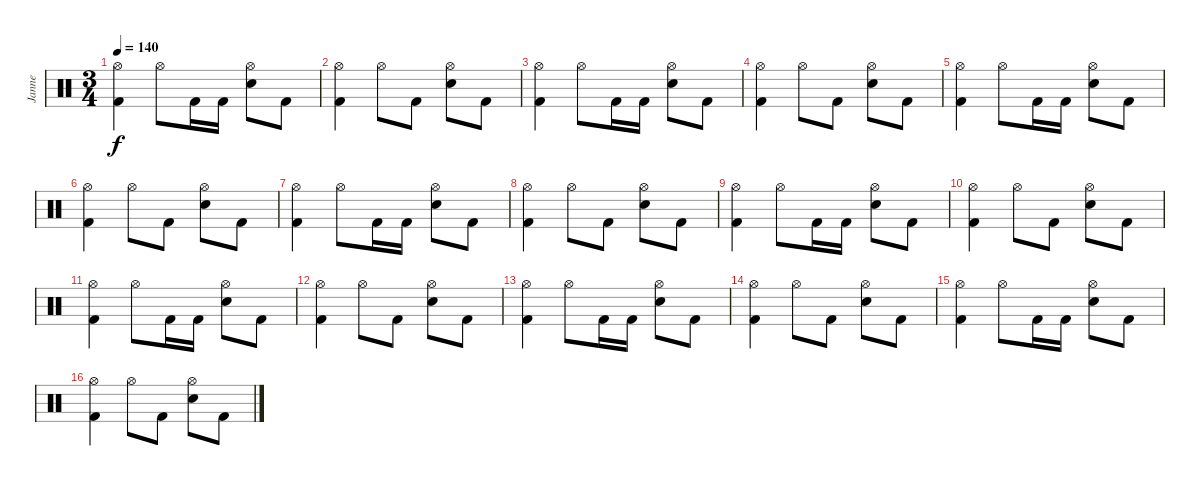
\track ("Janne" "Janne") {instrument percussion}
\staff {score}
\articulation defaults
\ts (3 4)
\tempo 140
\clef neutral
\ks c
("Hi-Hat (open)" "Kick (hit) 2").4{dy f} "Hi-Hat (open)".8 "Kick (hit) 2".16 "Kick (hit) 2".16 ("Hi-Hat (open)" "Electric Snare (hit)").8 "Kick (hit) 2".8 |
("Hi-Hat (open)" "Kick (hit) 2").4 "Hi-Hat (open)".8 "Kick (hit) 2".8 ("Hi-Hat (open)" "Electric Snare (hit)").8 "Kick (hit) 2".8 |
("Hi-Hat (open)" "Kick (hit) 2").4 "Hi-Hat (open)".8 "Kick (hit) 2".16 "Kick (hit) 2".16 ("Hi-Hat (open)" "Electric Snare (hit)").8 "Kick (hit) 2".8 |
("Hi-Hat (open)" "Kick (hit) 2").4 "Hi-Hat (open)".8 "Kick (hit) 2".8 ("Hi-Hat (open)" "Electric Snare (hit)").8 "Kick (hit) 2".8 |
("Hi-Hat (open)" "Kick (hit) 2").4 "Hi-Hat (open)".8 "Kick (hit) 2".16 "Kick (hit) 2".16 ("Hi-Hat (open)" "Electric Snare (hit)").8 "Kick (hit) 2".8 |
("Hi-Hat (open)" "Kick (hit) 2").4 "Hi-Hat (open)".8 "Kick (hit) 2".8 ("Hi-Hat (open)" "Electric Snare (hit)").8 "Kick (hit) 2".8 |
("Hi-Hat (open)" "Kick (hit) 2").4 "Hi-Hat (open)".8 "Kick (hit) 2".16 "Kick (hit) 2".16 ("Hi-Hat (open)" "Electric Snare (hit)").8 "Kick (hit) 2".8 |
("Hi-Hat (open)" "Kick (hit) 2").4 "Hi-Hat (open)".8 "Kick (hit) 2".8 ("Hi-Hat (open)" "Electric Snare (hit)").8 "Kick (hit) 2".8 |
("Hi-Hat (open)" "Kick (hit) 2").4 "Hi-Hat (open)".8 "Kick (hit) 2".16 "Kick (hit) 2".16 ("Hi-Hat (open)" "Electric Snare (hit)").8 "Kick (hit) 2".8 |
("Hi-Hat (open)" "Kick (hit) 2").4 "Hi-Hat (open)".8 "Kick (hit) 2".8 ("Hi-Hat (open)" "Electric Snare (hit)").8 "Kick (hit) 2".8 |
("Hi-Hat (open)" "Kick (hit) 2").4 "Hi-Hat (open)".8 "Kick (hit) 2".16 "Kick (hit) 2".16 ("Hi-Hat (open)" "Electric Snare (hit)").8 "Kick (hit) 2".8 |
("Hi-Hat (open)" "Kick (hit) 2").4 "Hi-Hat (open)".8 "Kick (hit) 2".8 ("Hi-Hat (open)" "Electric Snare (hit)").8 "Kick (hit) 2".8 |
("Hi-Hat (open)" "Kick (hit) 2").4 "Hi-Hat (open)".8 "Kick (hit) 2".16 "Kick (hit) 2".16 ("Hi-Hat (open)" "Electric Snare (hit)").8 "Kick (hit) 2".8 |
("Hi-Hat (open)" "Kick (hit) 2").4 "Hi-Hat (open)".8 "Kick (hit) 2".8 ("Hi-Hat (open)" "Electric Snare (hit)").8 "Kick (hit) 2".8 |
("Hi-Hat (open)" "Kick (hit) 2").4 "Hi-Hat (open)".8 "Kick (hit) 2".16 "Kick (hit) 2".16 ("Hi-Hat (open)" "Electric Snare (hit)").8 "Kick (hit) 2".8 |
("Hi-Hat (open)" "Kick (hit) 2").4 "Hi-Hat (open)".8 "Kick (hit) 2".8 ("Hi-Hat (open)" "Electric Snare (hit)").8 "Kick (hit) 2".8
